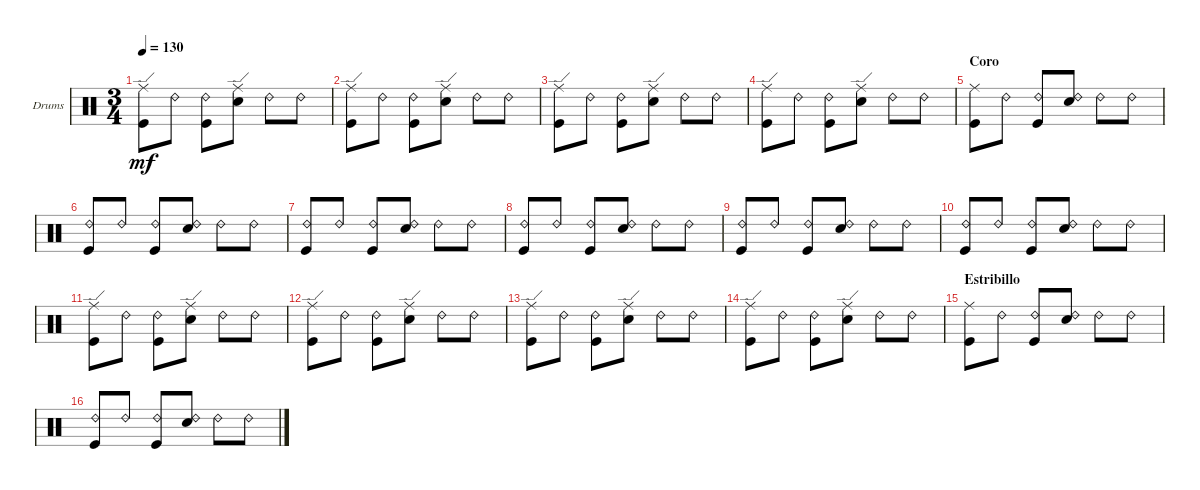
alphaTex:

\defaultSystemsLayout 4
\bracketExtendMode groupsimilarinstruments
\firstSystemTrackNameOrientation horizontal
\otherSystemsTrackNameOrientation horizontal
\track ("Drumkit" "Drums") {instrument percussion}
\staff {score}
\articulation defaults
\ts (3 4)
\tempo 130
\clef neutral
\ks c
("Ride (edge)" "Kick (hit)").8{dy mf} "Ride (bell) 2".8 ("Ride (bell) 2" "Kick (hit)").8 ("Ride (edge)" "Snare (hit) 2").8 "Ride (bell) 2".8 "Ride (bell) 2".8 |
("Ride (edge)" "Kick (hit)").8 "Ride (bell) 2".8 ("Ride (bell) 2" "Kick (hit)").8 ("Ride (edge)" "Snare (hit) 2").8 "Ride (bell) 2".8 "Ride (bell) 2".8 |
("Ride (edge)" "Kick (hit)").8 "Ride (bell) 2".8 ("Ride (bell) 2" "Kick (hit)").8 ("Ride (edge)" "Snare (hit) 2").8 "Ride (bell) 2".8 "Ride (bell) 2".8 |
("Ride (edge)" "Kick (hit)").8 "Ride (bell) 2".8 ("Ride (bell) 2" "Kick (hit)").8 ("Ride (edge)" "Snare (hit) 2").8 "Ride (bell) 2".8 "Ride (bell) 2".8 |
\section ("" "Coro")
("Kick (hit)" "Ride (middle)").8 "Ride (bell) 2".8 ("Kick (hit)" "Ride (bell) 2").8 ("Snare (hit) 2" "Ride (bell) 2").8 "Ride (bell) 2".8 "Ride (bell) 2".8 |
("Kick (hit)" "Ride (bell) 2").8 "Ride (bell) 2".8 ("Kick (hit)" "Ride (bell) 2").8 ("Snare (hit) 2" "Ride (bell) 2").8 "Ride (bell) 2".8 "Ride (bell) 2".8 |
("Kick (hit)" "Ride (bell) 2").8 "Ride (bell) 2".8 ("Kick (hit)" "Ride (bell) 2").8 ("Snare (hit) 2" "Ride (bell) 2").8 "Ride (bell) 2".8 "Ride (bell) 2".8 |
("Kick (hit)" "Ride (bell) 2").8 "Ride (bell) 2".8 ("Kick (hit)" "Ride (bell) 2").8 ("Snare (hit) 2" "Ride (bell) 2").8 "Ride (bell) 2".8 "Ride (bell) 2".8 |
("Kick (hit)" "Ride (bell) 2").8 "Ride (bell) 2".8 ("Kick (hit)" "Ride (bell) 2").8 ("Snare (hit) 2" "Ride (bell) 2").8 "Ride (bell) 2".8 "Ride (bell) 2".8 |
("Kick (hit)" "Ride (bell) 2").8 "Ride (bell) 2".8 ("Kick (hit)" "Ride (bell) 2").8 ("Snare (hit) 2" "Ride (bell) 2").8 "Ride (bell) 2".8 "Ride (bell) 2".8 |
("Ride (edge)" "Kick (hit)").8 "Ride (bell) 2".8 ("Ride (bell) 2" "Kick (hit)").8 ("Ride (edge)" "Snare (hit) 2").8 "Ride (bell) 2".8 "Ride (bell) 2".8 |
("Ride (edge)" "Kick (hit)").8 "Ride (bell) 2".8 ("Ride (bell) 2" "Kick (hit)").8 ("Ride (edge)" "Snare (hit) 2").8 "Ride (bell) 2".8 "Ride (bell) 2".8 |
("Ride (edge)" "Kick (hit)").8 "Ride (bell) 2".8 ("Ride (bell) 2" "Kick (hit)").8 ("Ride (edge)" "Snare (hit) 2").8 "Ride (bell) 2".8 "Ride (bell) 2".8 |
("Ride (edge)" "Kick (hit)").8 "Ride (bell) 2".8 ("Ride (bell) 2" "Kick (hit)").8 ("Ride (edge)" "Snare (hit) 2").8 "Ride (bell) 2".8 "Ride (bell) 2".8 |
\section ("" "Estribillo")
("Kick (hit)" "Ride (middle)").8 "Ride (bell) 2".8 ("Kick (hit)" "Ride (bell) 2").8 ("Snare (hit) 2" "Ride (bell) 2").8 "Ride (bell) 2".8 "Ride (bell) 2".8 |
("Kick (hit)" "Ride (bell) 2").8 "Ride (bell) 2".8 ("Kick (hit)" "Ride (bell) 2").8 ("Snare (hit) 2" "Ride (bell) 2").8 "Ride (bell) 2".8 "Ride (bell) 2".8
